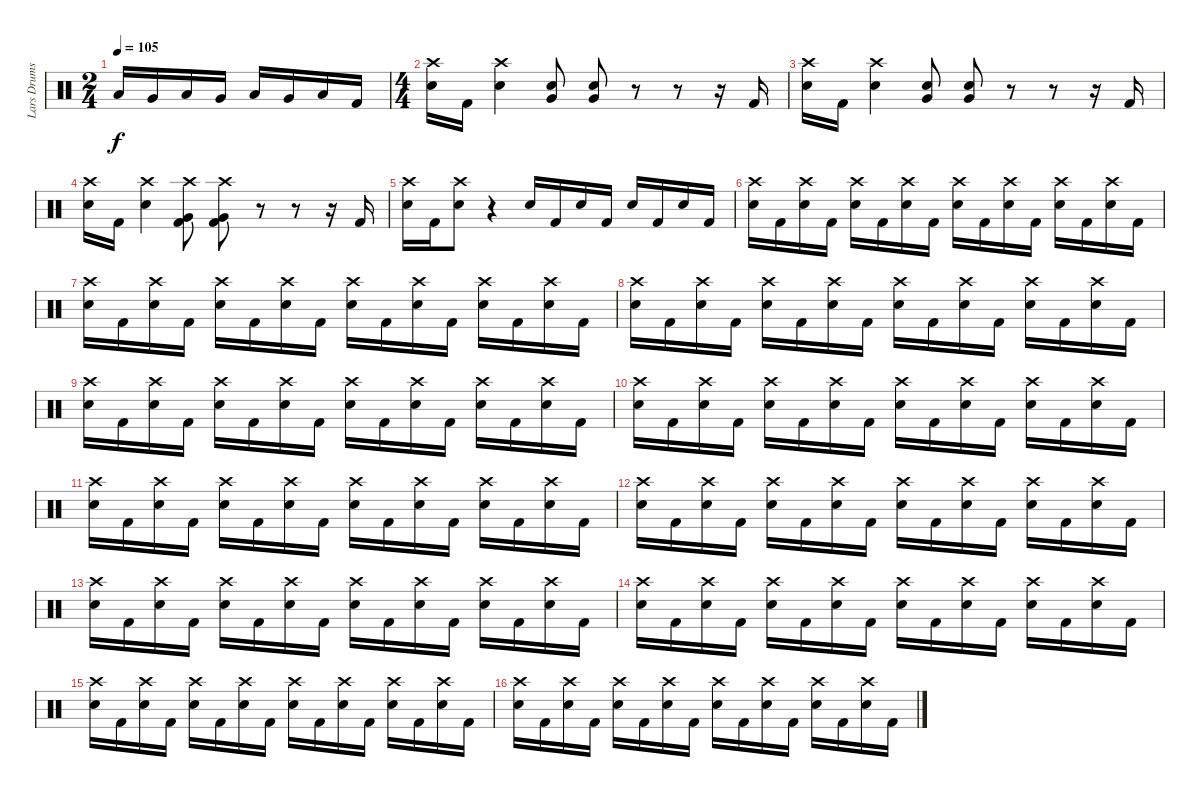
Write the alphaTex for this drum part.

\track ("Lars Drums" "Lars Drums") {instrument percussion}
\staff {score}
\articulation defaults
\ts (2 4)
\tempo 105
\clef neutral
\ks c "Low Floor Tom (hit)".16{dy f} "Very Low Tom (hit)".16 "Low Floor Tom (hit)".16 "Very Low Tom (hit)".16 "Low Floor Tom (hit)".16 "Very Low Tom (hit)".16 "Low Floor Tom (hit)".16 "Kick (hit) 2".16
|
\ts (4 4)
("Crash high (hit)" "Snare (hit) 2").16 "Kick (hit) 2".16 ("Crash high (hit)" "Snare (hit) 2").4 ("Very Low Tom (hit)" "Snare (hit) 2").8 ("Very Low Tom (hit)" "Snare (hit) 2").8 r.8 r.8 r.16 "Kick (hit) 2".16 |
("Crash high (hit)" "Snare (hit) 2").16 "Kick (hit) 2".16 ("Crash high (hit)" "Snare (hit) 2").4 ("Very Low Tom (hit)" "Snare (hit) 2").8 ("Very Low Tom (hit)" "Snare (hit) 2").8 r.8 r.8 r.16 "Kick (hit) 2".16 |
("Crash high (hit)" "Snare (hit) 2").16 "Kick (hit) 2".16 ("Crash high (hit)" "Snare (hit) 2").4 ("Crash high (hit)" "Very Low Tom (hit)" "Kick (hit) 2").8 ("Crash high (hit)" "Very Low Tom (hit)" "Kick (hit) 2").8 r.8 r.8 r.16 "Kick (hit) 2".16 |
("Crash high (hit)" "Snare (hit) 2").16 "Kick (hit) 2".16 ("Crash high (hit)" "Snare (hit) 2").8 r.4 "Snare (hit) 2".16 "Kick (hit) 2".16 "Snare (hit) 2".16 "Kick (hit) 2".16 "Snare (hit) 2".16 "Kick (hit) 2".16 "Snare (hit) 2".16 "Kick (hit) 2".16 |
("Crash high (hit)" "Snare (hit) 2").16 "Kick (hit) 2".16 ("Crash high (hit)" "Snare (hit) 2").16 "Kick (hit) 2".16 ("Crash high (hit)" "Snare (hit) 2").16 "Kick (hit) 2".16 ("Crash high (hit)" "Snare (hit) 2").16 "Kick (hit) 2".16 ("Crash high (hit)" "Snare (hit) 2").16 "Kick (hit) 2".16 ("Crash high (hit)" "Snare (hit) 2").16 "Kick (hit) 2".16 ("Crash high (hit)" "Snare (hit) 2").16 "Kick (hit) 2".16 ("Crash high (hit)" "Snare (hit) 2").16 "Kick (hit) 2".16 |
("Crash high (hit)" "Snare (hit) 2").16 "Kick (hit) 2".16 ("Crash high (hit)" "Snare (hit) 2").16 "Kick (hit) 2".16 ("Crash high (hit)" "Snare (hit) 2").16 "Kick (hit) 2".16 ("Crash high (hit)" "Snare (hit) 2").16 "Kick (hit) 2".16 ("Crash high (hit)" "Snare (hit) 2").16 "Kick (hit) 2".16 ("Crash high (hit)" "Snare (hit) 2").16 "Kick (hit) 2".16 ("Crash high (hit)" "Snare (hit) 2").16 "Kick (hit) 2".16 ("Crash high (hit)" "Snare (hit) 2").16 "Kick (hit) 2".16 |
("Crash high (hit)" "Snare (hit) 2").16 "Kick (hit) 2".16 ("Crash high (hit)" "Snare (hit) 2").16 "Kick (hit) 2".16 ("Crash high (hit)" "Snare (hit) 2").16 "Kick (hit) 2".16 ("Crash high (hit)" "Snare (hit) 2").16 "Kick (hit) 2".16 ("Crash high (hit)" "Snare (hit) 2").16 "Kick (hit) 2".16 ("Crash high (hit)" "Snare (hit) 2").16 "Kick (hit) 2".16 ("Crash high (hit)" "Snare (hit) 2").16 "Kick (hit) 2".16 ("Crash high (hit)" "Snare (hit) 2").16 "Kick (hit) 2".16 |
("Crash high (hit)" "Snare (hit) 2").16 "Kick (hit) 2".16 ("Crash high (hit)" "Snare (hit) 2").16 "Kick (hit) 2".16 ("Crash high (hit)" "Snare (hit) 2").16 "Kick (hit) 2".16 ("Crash high (hit)" "Snare (hit) 2").16 "Kick (hit) 2".16 ("Crash high (hit)" "Snare (hit) 2").16 "Kick (hit) 2".16 ("Crash high (hit)" "Snare (hit) 2").16 "Kick (hit) 2".16 ("Crash high (hit)" "Snare (hit) 2").16 "Kick (hit) 2".16 ("Crash high (hit)" "Snare (hit) 2").16 "Kick (hit) 2".16 |
("Crash high (hit)" "Snare (hit) 2").16 "Kick (hit) 2".16 ("Crash high (hit)" "Snare (hit) 2").16 "Kick (hit) 2".16 ("Crash high (hit)" "Snare (hit) 2").16 "Kick (hit) 2".16 ("Crash high (hit)" "Snare (hit) 2").16 "Kick (hit) 2".16 ("Crash high (hit)" "Snare (hit) 2").16 "Kick (hit) 2".16 ("Crash high (hit)" "Snare (hit) 2").16 "Kick (hit) 2".16 ("Crash high (hit)" "Snare (hit) 2").16 "Kick (hit) 2".16 ("Crash high (hit)" "Snare (hit) 2").16 "Kick (hit) 2".16 |
("Crash high (hit)" "Snare (hit) 2").16 "Kick (hit) 2".16 ("Crash high (hit)" "Snare (hit) 2").16 "Kick (hit) 2".16 ("Crash high (hit)" "Snare (hit) 2").16 "Kick (hit) 2".16 ("Crash high (hit)" "Snare (hit) 2").16 "Kick (hit) 2".16 ("Crash high (hit)" "Snare (hit) 2").16 "Kick (hit) 2".16 ("Crash high (hit)" "Snare (hit) 2").16 "Kick (hit) 2".16 ("Crash high (hit)" "Snare (hit) 2").16 "Kick (hit) 2".16 ("Crash high (hit)" "Snare (hit) 2").16 "Kick (hit) 2".16 |
("Crash high (hit)" "Snare (hit) 2").16 "Kick (hit) 2".16 ("Crash high (hit)" "Snare (hit) 2").16 "Kick (hit) 2".16 ("Crash high (hit)" "Snare (hit) 2").16 "Kick (hit) 2".16 ("Crash high (hit)" "Snare (hit) 2").16 "Kick (hit) 2".16 ("Crash high (hit)" "Snare (hit) 2").16 "Kick (hit) 2".16 ("Crash high (hit)" "Snare (hit) 2").16 "Kick (hit) 2".16 ("Crash high (hit)" "Snare (hit) 2").16 "Kick (hit) 2".16 ("Crash high (hit)" "Snare (hit) 2").16 "Kick (hit) 2".16 |
("Crash high (hit)" "Snare (hit) 2").16 "Kick (hit) 2".16 ("Crash high (hit)" "Snare (hit) 2").16 "Kick (hit) 2".16 ("Crash high (hit)" "Snare (hit) 2").16 "Kick (hit) 2".16 ("Crash high (hit)" "Snare (hit) 2").16 "Kick (hit) 2".16 ("Crash high (hit)" "Snare (hit) 2").16 "Kick (hit) 2".16 ("Crash high (hit)" "Snare (hit) 2").16 "Kick (hit) 2".16 ("Crash high (hit)" "Snare (hit) 2").16 "Kick (hit) 2".16 ("Crash high (hit)" "Snare (hit) 2").16 "Kick (hit) 2".16 |
("Crash high (hit)" "Snare (hit) 2").16 "Kick (hit) 2".16 ("Crash high (hit)" "Snare (hit) 2").16 "Kick (hit) 2".16 ("Crash high (hit)" "Snare (hit) 2").16 "Kick (hit) 2".16 ("Crash high (hit)" "Snare (hit) 2").16 "Kick (hit) 2".16 ("Crash high (hit)" "Snare (hit) 2").16 "Kick (hit) 2".16 ("Crash high (hit)" "Snare (hit) 2").16 "Kick (hit) 2".16 ("Crash high (hit)" "Snare (hit) 2").16 "Kick (hit) 2".16 ("Crash high (hit)" "Snare (hit) 2").16 "Kick (hit) 2".16 |
("Crash high (hit)" "Snare (hit) 2").16 "Kick (hit) 2".16 ("Crash high (hit)" "Snare (hit) 2").16 "Kick (hit) 2".16 ("Crash high (hit)" "Snare (hit) 2").16 "Kick (hit) 2".16 ("Crash high (hit)" "Snare (hit) 2").16 "Kick (hit) 2".16 ("Crash high (hit)" "Snare (hit) 2").16 "Kick (hit) 2".16 ("Crash high (hit)" "Snare (hit) 2").16 "Kick (hit) 2".16 ("Crash high (hit)" "Snare (hit) 2").16 "Kick (hit) 2".16 ("Crash high (hit)" "Snare (hit) 2").16 "Kick (hit) 2".16 |
("Crash high (hit)" "Snare (hit) 2").16 "Kick (hit) 2".16 ("Crash high (hit)" "Snare (hit) 2").16 "Kick (hit) 2".16 ("Crash high (hit)" "Snare (hit) 2").16 "Kick (hit) 2".16 ("Crash high (hit)" "Snare (hit) 2").16 "Kick (hit) 2".16 ("Crash high (hit)" "Snare (hit) 2").16 "Kick (hit) 2".16 ("Crash high (hit)" "Snare (hit) 2").16 "Kick (hit) 2".16 ("Crash high (hit)" "Snare (hit) 2").16 "Kick (hit) 2".16 ("Crash high (hit)" "Snare (hit) 2").16 "Kick (hit) 2".16
